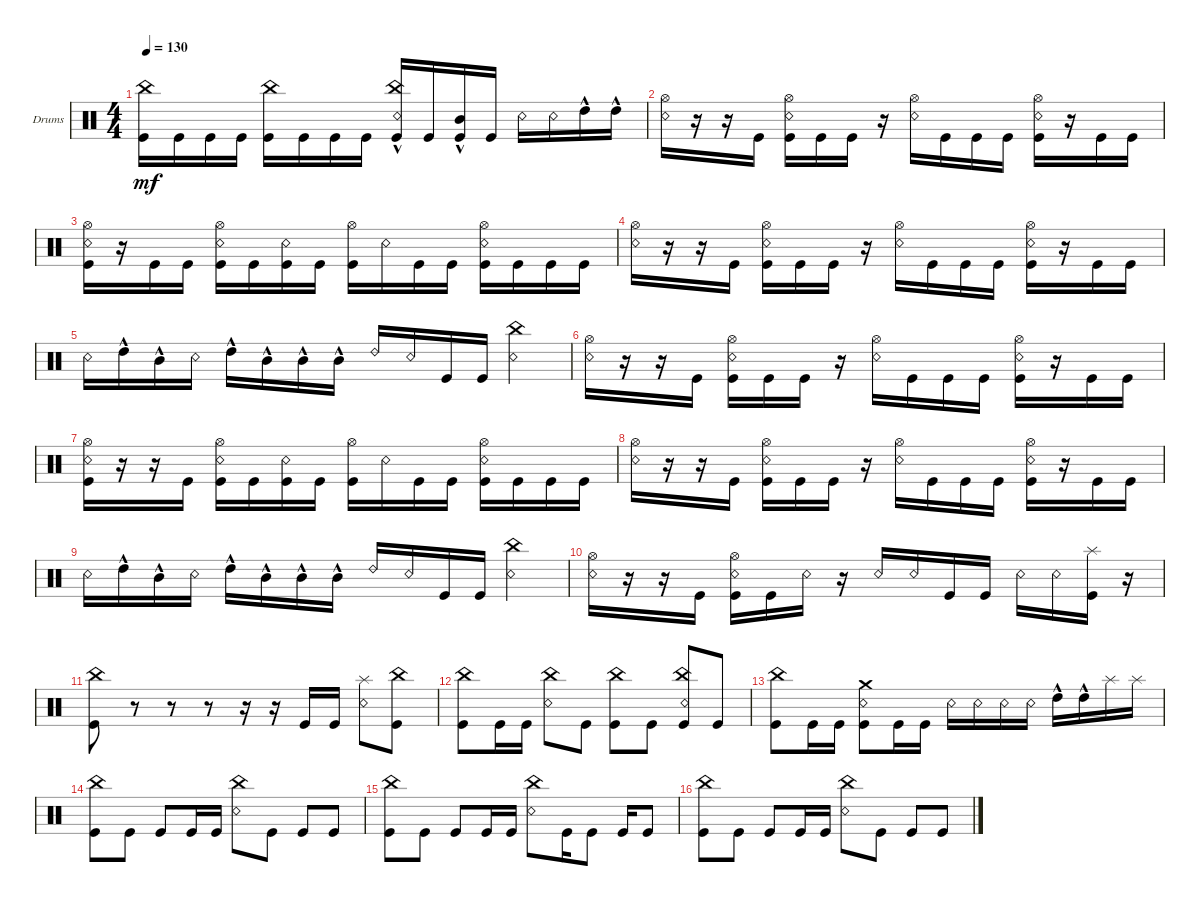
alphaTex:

\defaultSystemsLayout 4
\bracketExtendMode groupsimilarinstruments
\firstSystemTrackNameOrientation horizontal
\otherSystemsTrackNameOrientation horizontal
\track ("Drumkit" "Drums") {instrument percussion}
\staff {score}
\articulation defaults
\ts (4 4)
\tempo 130
\clef neutral
\ks c
("Kick (hit)" "China (hit)").16{dy mf} "Kick (hit)".16 "Kick (hit)".16 "Kick (hit)".16 ("Kick (hit)" "China (hit)").16 "Kick (hit)".16 "Kick (hit)".16 "Kick (hit)".16 ("Kick (hit)"{hac} "Snare (rim shot)" "China (hit)").16 "Kick (hit)".16 ("Kick (hit)"{hac} "Mid Tom (hit)"{hac}).16 "Kick (hit)".16 "Snare (rim shot)".16 "Snare (rim shot)".16 "High Tom (hit)"{hac}.16 "High Tom (hit)"{hac}.16 |
("Snare (rim shot)" "Hi-Hat (open)").16 r.16 r.16 "Kick (hit)".16 ("Kick (hit)" "Hi-Hat (open)" "Snare (rim shot)").16 "Kick (hit)".16 "Kick (hit)".16 r.16 ("Hi-Hat (open)" "Snare (rim shot)").16 "Kick (hit)".16 "Kick (hit)".16 "Kick (hit)".16 ("Kick (hit)" "Snare (rim shot)" "Hi-Hat (open)").16 r.16 "Kick (hit)".16 "Kick (hit)".16 |
("Kick (hit)" "Snare (rim shot)" "Hi-Hat (open)").16 r.16 "Kick (hit)".16 "Kick (hit)".16 ("Kick (hit)" "Snare (rim shot)" "Hi-Hat (open)").16 "Kick (hit)".16 ("Kick (hit)" "Snare (rim shot)").16 "Kick (hit)".16 ("Kick (hit)" "Hi-Hat (open)").16 "Snare (rim shot)".16 "Kick (hit)".16 "Kick (hit)".16 ("Kick (hit)" "Snare (rim shot)" "Hi-Hat (open)").16 "Kick (hit)".16 "Kick (hit)".16 "Kick (hit)".16 |
("Snare (rim shot)" "Hi-Hat (open)").16 r.16 r.16 "Kick (hit)".16 ("Kick (hit)" "Hi-Hat (open)" "Snare (rim shot)").16 "Kick (hit)".16 "Kick (hit)".16 r.16 ("Hi-Hat (open)" "Snare (rim shot)").16 "Kick (hit)".16 "Kick (hit)".16 "Kick (hit)".16 ("Kick (hit)" "Snare (rim shot)" "Hi-Hat (open)").16 r.16 "Kick (hit)".16 "Kick (hit)".16 |
"Snare (rim shot)".16 "High Tom (hit)"{hac}.16 "Mid Tom (hit)"{hac}.16 "Snare (rim shot)".16 "High Tom (hit)"{hac}.16 "Mid Tom (hit)"{hac}.16 "Mid Tom (hit)"{hac}.16 "Mid Tom (hit)"{hac}.16 "Ride (bell) 2".16 "Snare (rim shot)".16 "Kick (hit)".16 "Kick (hit)".16 ("Snare (rim shot)" "China (hit)").4 |
("Snare (rim shot)" "Hi-Hat (open)").16 r.16 r.16 "Kick (hit)".16 ("Kick (hit)" "Hi-Hat (open)" "Snare (rim shot)").16 "Kick (hit)".16 "Kick (hit)".16 r.16 ("Hi-Hat (open)" "Snare (rim shot)").16 "Kick (hit)".16 "Kick (hit)".16 "Kick (hit)".16 ("Kick (hit)" "Snare (rim shot)" "Hi-Hat (open)").16 r.16 "Kick (hit)".16 "Kick (hit)".16 |
("Kick (hit)" "Snare (rim shot)" "Hi-Hat (open)").16 r.16 r.16 "Kick (hit)".16 ("Kick (hit)" "Snare (rim shot)" "Hi-Hat (open)").16 "Kick (hit)".16 ("Kick (hit)" "Snare (rim shot)").16 "Kick (hit)".16 ("Kick (hit)" "Hi-Hat (open)").16 "Snare (rim shot)".16 "Kick (hit)".16 "Kick (hit)".16 ("Kick (hit)" "Snare (rim shot)" "Hi-Hat (open)").16 "Kick (hit)".16 "Kick (hit)".16 "Kick (hit)".16 |
("Snare (rim shot)" "Hi-Hat (open)").16 r.16 r.16 "Kick (hit)".16 ("Kick (hit)" "Hi-Hat (open)" "Snare (rim shot)").16 "Kick (hit)".16 "Kick (hit)".16 r.16 ("Hi-Hat (open)" "Snare (rim shot)").16 "Kick (hit)".16 "Kick (hit)".16 "Kick (hit)".16 ("Kick (hit)" "Snare (rim shot)" "Hi-Hat (open)").16 r.16 "Kick (hit)".16 "Kick (hit)".16 |
"Snare (rim shot)".16 "High Tom (hit)"{hac}.16 "Mid Tom (hit)"{hac}.16 "Snare (rim shot)".16 "High Tom (hit)"{hac}.16 "Mid Tom (hit)"{hac}.16 "Mid Tom (hit)"{hac}.16 "Mid Tom (hit)"{hac}.16 "Ride (bell) 2".16 "Snare (rim shot)".16 "Kick (hit)".16 "Kick (hit)".16 ("Snare (rim shot)" "China (hit)").4 |
("Snare (rim shot)" "Hi-Hat (open)").16 r.16 r.16 "Kick (hit)".16 ("Kick (hit)" "Hi-Hat (open)" "Snare (rim shot)").16 "Kick (hit)".16 "Snare (rim shot)".16 r.16 "Snare (rim shot)".16 "Snare (rim shot)".16 "Kick (hit)".16 "Kick (hit)".16 "Snare (rim shot)".16 "Snare (rim shot)".16 ("Splash (hit)" "Kick (hit)").16 r.16 |
("China (hit)" "Kick (hit)").8 r.8 r.8 r.8 r.16 r.16 "Kick (hit)".16 "Kick (hit)".16 ("Snare (rim shot)" "Splash (hit)").8 ("Kick (hit)" "China (hit)").8 |
("China (hit)" "Kick (hit)").8 "Kick (hit)".16 "Kick (hit)".16 ("Snare (rim shot)" "China (hit)").8 "Kick (hit)".8 ("Kick (hit)" "China (hit)").8 "Kick (hit)".8 ("Kick (hit)" "China (hit)" "Snare (rim shot)").8 "Kick (hit)".8 |
("China (hit)" "Kick (hit)").8 "Kick (hit)".16 "Kick (hit)".16 ("Kick (hit)" "Snare (rim shot)" "Crash medium (hit)").8 "Kick (hit)".16 "Kick (hit)".16 "Snare (rim shot)".16 "Snare (rim shot)".16 "Snare (rim shot)".16 "Snare (rim shot)".16 "High Tom (hit)"{hac}.16 "High Tom (hit)"{hac}.16 "Splash (hit)".16 "Splash (hit)".16 |
("China (hit)" "Kick (hit)").8 "Kick (hit)".8 "Kick (hit)".8 "Kick (hit)".16 "Kick (hit)".16 ("Snare (rim shot)" "China (hit)").8 "Kick (hit)".8 "Kick (hit)".8 "Kick (hit)".8 |
("China (hit)" "Kick (hit)").8 "Kick (hit)".8 "Kick (hit)".8 "Kick (hit)".16 "Kick (hit)".16 ("Snare (rim shot)" "China (hit)").8 "Kick (hit)".16 "Kick (hit)".8 "Kick (hit)".16 "Kick (hit)".8 |
("China (hit)" "Kick (hit)").8 "Kick (hit)".8 "Kick (hit)".8 "Kick (hit)".16 "Kick (hit)".16 ("Snare (rim shot)" "China (hit)").8 "Kick (hit)".8 "Kick (hit)".8 "Kick (hit)".8
